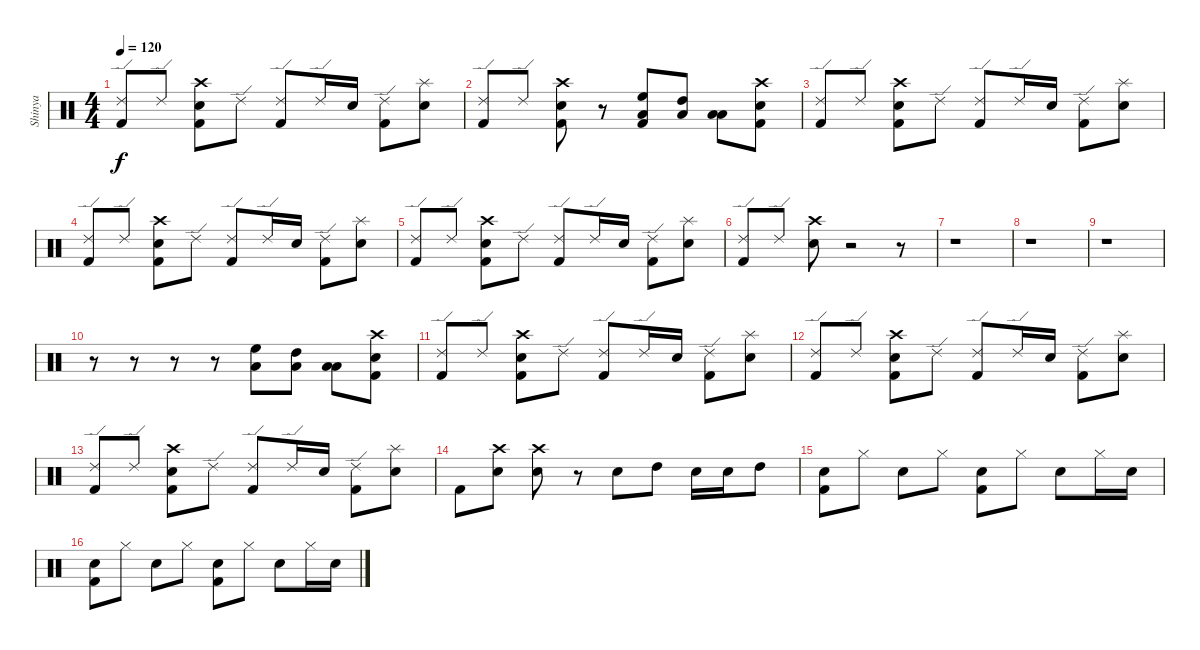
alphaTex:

\track ("Shinya" "Shinya") {instrument percussion}
\staff {score}
\articulation defaults
\ts (4 4)
\tempo 120
\clef neutral
\ks c
("Ride (edge) 2" "Kick (hit) 2").8{dy f} "Ride (edge) 2".8 ("Electric Snare (hit)" "Crash high (hit)" "Kick (hit) 2").8 "Ride (edge) 2".8 ("Ride (edge) 2" "Kick (hit) 2").8 "Ride (edge) 2".16 "Electric Snare (hit)".16 ("Ride (edge) 2" "Kick (hit) 2").8 ("Electric Snare (hit)" "Splash (hit)").8 |
("Ride (edge) 2" "Kick (hit) 2").8 "Ride (edge) 2".8 ("Electric Snare (hit)" "Crash high (hit)" "Kick (hit) 2").8 r.8 ("High Floor Tom (hit)" "Low Floor Tom (hit)" "Kick (hit) 2").8 ("High Tom (hit)" "Low Floor Tom (hit)").8 ("Low Tom (hit)" "Low Floor Tom (hit)").8 ("Electric Snare (hit)" "Crash high (hit)" "Kick (hit) 2"{x}).8 |
("Ride (edge) 2" "Kick (hit) 2").8 "Ride (edge) 2".8 ("Electric Snare (hit)" "Crash high (hit)" "Kick (hit) 2").8 "Ride (edge) 2".8 ("Ride (edge) 2" "Kick (hit) 2").8 "Ride (edge) 2".16 "Electric Snare (hit)".16 ("Ride (edge) 2" "Kick (hit) 2").8 ("Electric Snare (hit)" "Splash (hit)").8 |
("Ride (edge) 2" "Kick (hit) 2").8 "Ride (edge) 2".8 ("Electric Snare (hit)" "Crash high (hit)" "Kick (hit) 2").8 "Ride (edge) 2".8 ("Ride (edge) 2" "Kick (hit) 2").8 "Ride (edge) 2".16 "Electric Snare (hit)".16 ("Ride (edge) 2" "Kick (hit) 2").8 ("Electric Snare (hit)" "Splash (hit)").8 |
("Ride (edge) 2" "Kick (hit) 2").8 "Ride (edge) 2".8 ("Electric Snare (hit)" "Crash high (hit)" "Kick (hit) 2").8 "Ride (edge) 2".8 ("Ride (edge) 2" "Kick (hit) 2").8 "Ride (edge) 2".16 "Electric Snare (hit)".16 ("Ride (edge) 2" "Kick (hit) 2").8 ("Electric Snare (hit)" "Splash (hit)").8 |
("Ride (edge) 2" "Kick (hit) 2").8 "Ride (edge) 2".8 ("Electric Snare (hit)" "Crash high (hit)").8 r.2 r.8 |
r.1 |
r.1 |
r.1 |
r.8 r.8 r.8 r.8 ("High Floor Tom (hit)" "Low Floor Tom (hit)").8 ("High Tom (hit)" "Low Floor Tom (hit)").8 ("Low Tom (hit)" "Low Floor Tom (hit)").8 ("Electric Snare (hit)" "Crash high (hit)" "Kick (hit) 2"{x}).8 |
("Ride (edge) 2" "Kick (hit) 2").8 "Ride (edge) 2".8 ("Electric Snare (hit)" "Crash high (hit)" "Kick (hit) 2").8 "Ride (edge) 2".8 ("Ride (edge) 2" "Kick (hit) 2").8 "Ride (edge) 2".16 "Electric Snare (hit)".16 ("Ride (edge) 2" "Kick (hit) 2").8 ("Electric Snare (hit)" "Splash (hit)").8 |
("Ride (edge) 2" "Kick (hit) 2").8 "Ride (edge) 2".8 ("Electric Snare (hit)" "Crash high (hit)" "Kick (hit) 2").8 "Ride (edge) 2".8 ("Ride (edge) 2" "Kick (hit) 2").8 "Ride (edge) 2".16 "Electric Snare (hit)".16 ("Ride (edge) 2" "Kick (hit) 2").8 ("Electric Snare (hit)" "Splash (hit)").8 |
("Ride (edge) 2" "Kick (hit) 2").8 "Ride (edge) 2".8 ("Electric Snare (hit)" "Crash high (hit)" "Kick (hit) 2").8 "Ride (edge) 2".8 ("Ride (edge) 2" "Kick (hit) 2").8 "Ride (edge) 2".16 "Electric Snare (hit)".16 ("Ride (edge) 2" "Kick (hit) 2").8 ("Electric Snare (hit)" "Splash (hit)").8 |
"Kick (hit) 2".8 ("Electric Snare (hit)" "Crash high (hit)").8 ("Electric Snare (hit)" "Crash high (hit)").8 r.8 "Electric Snare (hit)".8 "High Tom (hit)".8 "Electric Snare (hit)".16 "Electric Snare (hit)".16 "High Tom (hit)".8 |
("Snare (hit)"{x} "Kick (hit) 2").8 "Hi-Hat (closed)".8 "Electric Snare (hit)".8 "Hi-Hat (closed)".8 ("Snare (hit)"{x} "Kick (hit) 2").8 "Hi-Hat (closed)".8 "Electric Snare (hit)".8 "Hi-Hat (closed)".16 "Electric Snare (hit)".16 |
("Snare (hit)"{x} "Kick (hit) 2").8 "Hi-Hat (closed)".8 "Electric Snare (hit)".8 "Hi-Hat (closed)".8 ("Snare (hit)"{x} "Kick (hit) 2").8 "Hi-Hat (closed)".8 "Electric Snare (hit)".8 "Hi-Hat (closed)".16 "Electric Snare (hit)".16
